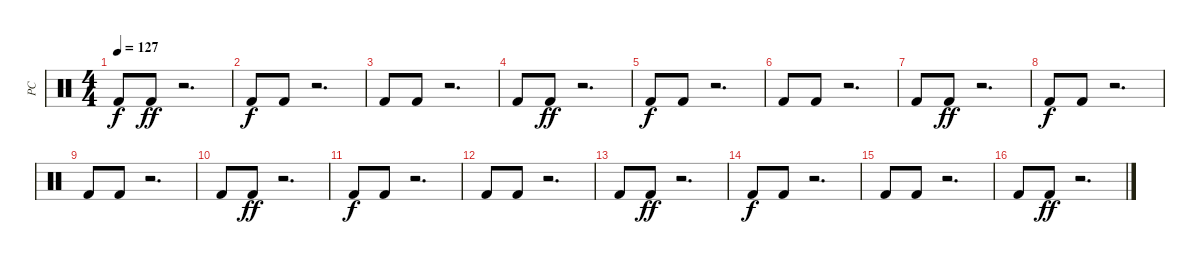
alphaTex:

\track ("PC" "PC") {instrument percussion}
\staff {score}
\articulation defaults
\ts (4 4)
\tempo 127
\clef neutral
\ks c "Kick (hit) 2".8{dy f} "Kick (hit) 2".8{dy ff}
r.2{d} |
"Kick (hit) 2".8{dy f} "Kick (hit) 2".8 r.2{d} |
"Kick (hit) 2".8 "Kick (hit) 2".8 r.2{d} |
"Kick (hit) 2".8 "Kick (hit) 2".8{dy ff} r.2{d} |
"Kick (hit) 2".8{dy f} "Kick (hit) 2".8 r.2{d} |
"Kick (hit) 2".8 "Kick (hit) 2".8 r.2{d} |
"Kick (hit) 2".8 "Kick (hit) 2".8{dy ff} r.2{d} |
"Kick (hit) 2".8{dy f} "Kick (hit) 2".8 r.2{d} |
"Kick (hit) 2".8 "Kick (hit) 2".8 r.2{d} |
"Kick (hit) 2".8 "Kick (hit) 2".8{dy ff} r.2{d} |
"Kick (hit) 2".8{dy f} "Kick (hit) 2".8 r.2{d} |
"Kick (hit) 2".8 "Kick (hit) 2".8 r.2{d} |
"Kick (hit) 2".8 "Kick (hit) 2".8{dy ff} r.2{d} |
"Kick (hit) 2".8{dy f} "Kick (hit) 2".8 r.2{d} |
"Kick (hit) 2".8 "Kick (hit) 2".8 r.2{d} |
"Kick (hit) 2".8 "Kick (hit) 2".8{dy ff} r.2{d}
